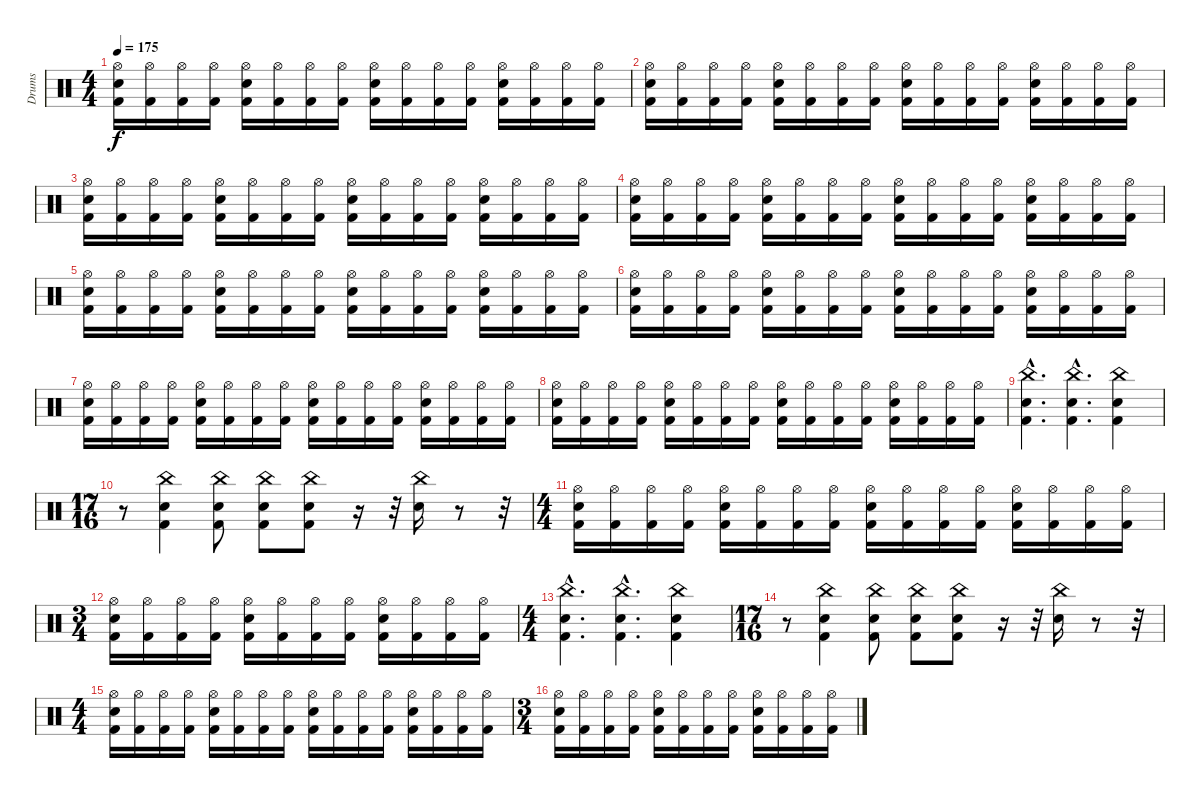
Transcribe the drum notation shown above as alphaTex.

\track ("Drums" "Drums") {instrument percussion}
\staff {score}
\articulation defaults
\ts (4 4)
\tempo 175
\clef neutral
\ks c
("Hi-Hat (open)" "Electric Snare (hit)" "Kick (hit) 2").16{dy f} ("Hi-Hat (open)" "Kick (hit) 2").16 ("Hi-Hat (open)" "Kick (hit) 2").16 ("Hi-Hat (open)" "Kick (hit) 2").16 ("Hi-Hat (open)" "Electric Snare (hit)" "Kick (hit) 2").16 ("Hi-Hat (open)" "Kick (hit) 2").16 ("Hi-Hat (open)" "Kick (hit) 2").16 ("Hi-Hat (open)" "Kick (hit) 2").16 ("Hi-Hat (open)" "Electric Snare (hit)" "Kick (hit) 2").16 ("Hi-Hat (open)" "Kick (hit) 2").16 ("Hi-Hat (open)" "Kick (hit) 2").16 ("Hi-Hat (open)" "Kick (hit) 2").16 ("Hi-Hat (open)" "Electric Snare (hit)" "Kick (hit) 2").16 ("Hi-Hat (open)" "Kick (hit) 2").16 ("Hi-Hat (open)" "Kick (hit) 2").16 ("Hi-Hat (open)" "Kick (hit) 2").16 |
("Hi-Hat (open)" "Electric Snare (hit)" "Kick (hit) 2").16 ("Hi-Hat (open)" "Kick (hit) 2").16 ("Hi-Hat (open)" "Kick (hit) 2").16 ("Hi-Hat (open)" "Kick (hit) 2").16 ("Hi-Hat (open)" "Electric Snare (hit)" "Kick (hit) 2").16 ("Hi-Hat (open)" "Kick (hit) 2").16 ("Hi-Hat (open)" "Kick (hit) 2").16 ("Hi-Hat (open)" "Kick (hit) 2").16 ("Hi-Hat (open)" "Electric Snare (hit)" "Kick (hit) 2").16 ("Hi-Hat (open)" "Kick (hit) 2").16 ("Hi-Hat (open)" "Kick (hit) 2").16 ("Hi-Hat (open)" "Kick (hit) 2").16 ("Hi-Hat (open)" "Electric Snare (hit)" "Kick (hit) 2").16 ("Hi-Hat (open)" "Kick (hit) 2").16 ("Hi-Hat (open)" "Kick (hit) 2").16 ("Hi-Hat (open)" "Kick (hit) 2").16 |
("Hi-Hat (open)" "Electric Snare (hit)" "Kick (hit) 2").16 ("Hi-Hat (open)" "Kick (hit) 2").16 ("Hi-Hat (open)" "Kick (hit) 2").16 ("Hi-Hat (open)" "Kick (hit) 2").16 ("Hi-Hat (open)" "Electric Snare (hit)" "Kick (hit) 2").16 ("Hi-Hat (open)" "Kick (hit) 2").16 ("Hi-Hat (open)" "Kick (hit) 2").16 ("Hi-Hat (open)" "Kick (hit) 2").16 ("Hi-Hat (open)" "Electric Snare (hit)" "Kick (hit) 2").16 ("Hi-Hat (open)" "Kick (hit) 2").16 ("Hi-Hat (open)" "Kick (hit) 2").16 ("Hi-Hat (open)" "Kick (hit) 2").16 ("Hi-Hat (open)" "Electric Snare (hit)" "Kick (hit) 2").16 ("Hi-Hat (open)" "Kick (hit) 2").16 ("Hi-Hat (open)" "Kick (hit) 2").16 ("Hi-Hat (open)" "Kick (hit) 2").16 |
("Hi-Hat (open)" "Electric Snare (hit)" "Kick (hit) 2").16 ("Hi-Hat (open)" "Kick (hit) 2").16 ("Hi-Hat (open)" "Kick (hit) 2").16 ("Hi-Hat (open)" "Kick (hit) 2").16 ("Hi-Hat (open)" "Electric Snare (hit)" "Kick (hit) 2").16 ("Hi-Hat (open)" "Kick (hit) 2").16 ("Hi-Hat (open)" "Kick (hit) 2").16 ("Hi-Hat (open)" "Kick (hit) 2").16 ("Hi-Hat (open)" "Electric Snare (hit)" "Kick (hit) 2").16 ("Hi-Hat (open)" "Kick (hit) 2").16 ("Hi-Hat (open)" "Kick (hit) 2").16 ("Hi-Hat (open)" "Kick (hit) 2").16 ("Hi-Hat (open)" "Electric Snare (hit)" "Kick (hit) 2").16 ("Hi-Hat (open)" "Kick (hit) 2").16 ("Hi-Hat (open)" "Kick (hit) 2").16 ("Hi-Hat (open)" "Kick (hit) 2").16 |
("Hi-Hat (open)" "Electric Snare (hit)" "Kick (hit) 2").16 ("Hi-Hat (open)" "Kick (hit) 2").16 ("Hi-Hat (open)" "Kick (hit) 2").16 ("Hi-Hat (open)" "Kick (hit) 2").16 ("Hi-Hat (open)" "Electric Snare (hit)" "Kick (hit) 2").16 ("Hi-Hat (open)" "Kick (hit) 2").16 ("Hi-Hat (open)" "Kick (hit) 2").16 ("Hi-Hat (open)" "Kick (hit) 2").16 ("Hi-Hat (open)" "Electric Snare (hit)" "Kick (hit) 2").16 ("Hi-Hat (open)" "Kick (hit) 2").16 ("Hi-Hat (open)" "Kick (hit) 2").16 ("Hi-Hat (open)" "Kick (hit) 2").16 ("Hi-Hat (open)" "Electric Snare (hit)" "Kick (hit) 2").16 ("Hi-Hat (open)" "Kick (hit) 2").16 ("Hi-Hat (open)" "Kick (hit) 2").16 ("Hi-Hat (open)" "Kick (hit) 2").16 |
("Hi-Hat (open)" "Electric Snare (hit)" "Kick (hit) 2").16 ("Hi-Hat (open)" "Kick (hit) 2").16 ("Hi-Hat (open)" "Kick (hit) 2").16 ("Hi-Hat (open)" "Kick (hit) 2").16 ("Hi-Hat (open)" "Electric Snare (hit)" "Kick (hit) 2").16 ("Hi-Hat (open)" "Kick (hit) 2").16 ("Hi-Hat (open)" "Kick (hit) 2").16 ("Hi-Hat (open)" "Kick (hit) 2").16 ("Hi-Hat (open)" "Electric Snare (hit)" "Kick (hit) 2").16 ("Hi-Hat (open)" "Kick (hit) 2").16 ("Hi-Hat (open)" "Kick (hit) 2").16 ("Hi-Hat (open)" "Kick (hit) 2").16 ("Hi-Hat (open)" "Electric Snare (hit)" "Kick (hit) 2").16 ("Hi-Hat (open)" "Kick (hit) 2").16 ("Hi-Hat (open)" "Kick (hit) 2").16 ("Hi-Hat (open)" "Kick (hit) 2").16 |
("Hi-Hat (open)" "Electric Snare (hit)" "Kick (hit) 2").16 ("Hi-Hat (open)" "Kick (hit) 2").16 ("Hi-Hat (open)" "Kick (hit) 2").16 ("Hi-Hat (open)" "Kick (hit) 2").16 ("Hi-Hat (open)" "Electric Snare (hit)" "Kick (hit) 2").16 ("Hi-Hat (open)" "Kick (hit) 2").16 ("Hi-Hat (open)" "Kick (hit) 2").16 ("Hi-Hat (open)" "Kick (hit) 2").16 ("Hi-Hat (open)" "Electric Snare (hit)" "Kick (hit) 2").16 ("Hi-Hat (open)" "Kick (hit) 2").16 ("Hi-Hat (open)" "Kick (hit) 2").16 ("Hi-Hat (open)" "Kick (hit) 2").16 ("Hi-Hat (open)" "Electric Snare (hit)" "Kick (hit) 2").16 ("Hi-Hat (open)" "Kick (hit) 2").16 ("Hi-Hat (open)" "Kick (hit) 2").16 ("Hi-Hat (open)" "Kick (hit) 2").16 |
("Hi-Hat (open)" "Electric Snare (hit)" "Kick (hit) 2").16 ("Hi-Hat (open)" "Kick (hit) 2").16 ("Hi-Hat (open)" "Kick (hit) 2").16 ("Hi-Hat (open)" "Kick (hit) 2").16 ("Hi-Hat (open)" "Electric Snare (hit)" "Kick (hit) 2").16 ("Hi-Hat (open)" "Kick (hit) 2").16 ("Hi-Hat (open)" "Kick (hit) 2").16 ("Hi-Hat (open)" "Kick (hit) 2").16 ("Hi-Hat (open)" "Electric Snare (hit)" "Kick (hit) 2").16 ("Hi-Hat (open)" "Kick (hit) 2").16 ("Hi-Hat (open)" "Kick (hit) 2").16 ("Hi-Hat (open)" "Kick (hit) 2").16 ("Hi-Hat (open)" "Electric Snare (hit)" "Kick (hit) 2").16 ("Hi-Hat (open)" "Kick (hit) 2").16 ("Hi-Hat (open)" "Kick (hit) 2").16 ("Hi-Hat (open)" "Kick (hit) 2").16 |
("China (hit)"{hac} "Electric Snare (hit)"{hac} "Kick (hit) 2"{hac}).4{d} ("China (hit)"{hac} "Electric Snare (hit)"{hac} "Kick (hit) 2"{hac}).4{d} ("China (hit)" "Electric Snare (hit)" "Kick (hit) 2").4 |
\ts (17 16)
r.8 ("China (hit)" "Electric Snare (hit)" "Kick (hit) 2").4 ("China (hit)" "Electric Snare (hit)" "Kick (hit) 2").8 ("China (hit)" "Electric Snare (hit)" "Kick (hit) 2").8 ("China (hit)" "Electric Snare (hit)" "Kick (hit) 2").8 r.16 r.32 ("China (hit)" "Electric Snare (hit)").16 r.8 r.32 |
\ts (4 4)
("Hi-Hat (open)" "Electric Snare (hit)" "Kick (hit) 2").16 ("Hi-Hat (open)" "Kick (hit) 2").16 ("Hi-Hat (open)" "Kick (hit) 2").16 ("Hi-Hat (open)" "Kick (hit) 2").16 ("Hi-Hat (open)" "Electric Snare (hit)" "Kick (hit) 2").16 ("Hi-Hat (open)" "Kick (hit) 2").16 ("Hi-Hat (open)" "Kick (hit) 2").16 ("Hi-Hat (open)" "Kick (hit) 2").16 ("Hi-Hat (open)" "Electric Snare (hit)" "Kick (hit) 2").16 ("Hi-Hat (open)" "Kick (hit) 2").16 ("Hi-Hat (open)" "Kick (hit) 2").16 ("Hi-Hat (open)" "Kick (hit) 2").16 ("Hi-Hat (open)" "Electric Snare (hit)" "Kick (hit) 2").16 ("Hi-Hat (open)" "Kick (hit) 2").16 ("Hi-Hat (open)" "Kick (hit) 2").16 ("Hi-Hat (open)" "Kick (hit) 2").16 |
\ts (3 4)
("Hi-Hat (open)" "Electric Snare (hit)" "Kick (hit) 2").16 ("Hi-Hat (open)" "Kick (hit) 2").16 ("Hi-Hat (open)" "Kick (hit) 2").16 ("Hi-Hat (open)" "Kick (hit) 2").16 ("Hi-Hat (open)" "Electric Snare (hit)" "Kick (hit) 2").16 ("Hi-Hat (open)" "Kick (hit) 2").16 ("Hi-Hat (open)" "Kick (hit) 2").16 ("Hi-Hat (open)" "Kick (hit) 2").16 ("Hi-Hat (open)" "Electric Snare (hit)" "Kick (hit) 2").16 ("Hi-Hat (open)" "Kick (hit) 2").16 ("Hi-Hat (open)" "Kick (hit) 2").16 ("Hi-Hat (open)" "Kick (hit) 2").16 |
\ts (4 4)
("China (hit)"{hac} "Electric Snare (hit)"{hac} "Kick (hit) 2"{hac}).4{d} ("China (hit)"{hac} "Electric Snare (hit)"{hac} "Kick (hit) 2"{hac}).4{d} ("China (hit)" "Electric Snare (hit)" "Kick (hit) 2").4 |
\ts (17 16)
r.8 ("China (hit)" "Electric Snare (hit)" "Kick (hit) 2").4 ("China (hit)" "Electric Snare (hit)" "Kick (hit) 2").8 ("China (hit)" "Electric Snare (hit)" "Kick (hit) 2").8 ("China (hit)" "Electric Snare (hit)" "Kick (hit) 2").8 r.16 r.32 ("China (hit)" "Electric Snare (hit)").16 r.8 r.32 |
\ts (4 4)
("Hi-Hat (open)" "Electric Snare (hit)" "Kick (hit) 2").16 ("Hi-Hat (open)" "Kick (hit) 2").16 ("Hi-Hat (open)" "Kick (hit) 2").16 ("Hi-Hat (open)" "Kick (hit) 2").16 ("Hi-Hat (open)" "Electric Snare (hit)" "Kick (hit) 2").16 ("Hi-Hat (open)" "Kick (hit) 2").16 ("Hi-Hat (open)" "Kick (hit) 2").16 ("Hi-Hat (open)" "Kick (hit) 2").16 ("Hi-Hat (open)" "Electric Snare (hit)" "Kick (hit) 2").16 ("Hi-Hat (open)" "Kick (hit) 2").16 ("Hi-Hat (open)" "Kick (hit) 2").16 ("Hi-Hat (open)" "Kick (hit) 2").16 ("Hi-Hat (open)" "Electric Snare (hit)" "Kick (hit) 2").16 ("Hi-Hat (open)" "Kick (hit) 2").16 ("Hi-Hat (open)" "Kick (hit) 2").16 ("Hi-Hat (open)" "Kick (hit) 2").16 |
\ts (3 4)
("Hi-Hat (open)" "Electric Snare (hit)" "Kick (hit) 2").16 ("Hi-Hat (open)" "Kick (hit) 2").16 ("Hi-Hat (open)" "Kick (hit) 2").16 ("Hi-Hat (open)" "Kick (hit) 2").16 ("Hi-Hat (open)" "Electric Snare (hit)" "Kick (hit) 2").16 ("Hi-Hat (open)" "Kick (hit) 2").16 ("Hi-Hat (open)" "Kick (hit) 2").16 ("Hi-Hat (open)" "Kick (hit) 2").16 ("Hi-Hat (open)" "Electric Snare (hit)" "Kick (hit) 2").16 ("Hi-Hat (open)" "Kick (hit) 2").16 ("Hi-Hat (open)" "Kick (hit) 2").16 ("Hi-Hat (open)" "Kick (hit) 2").16
